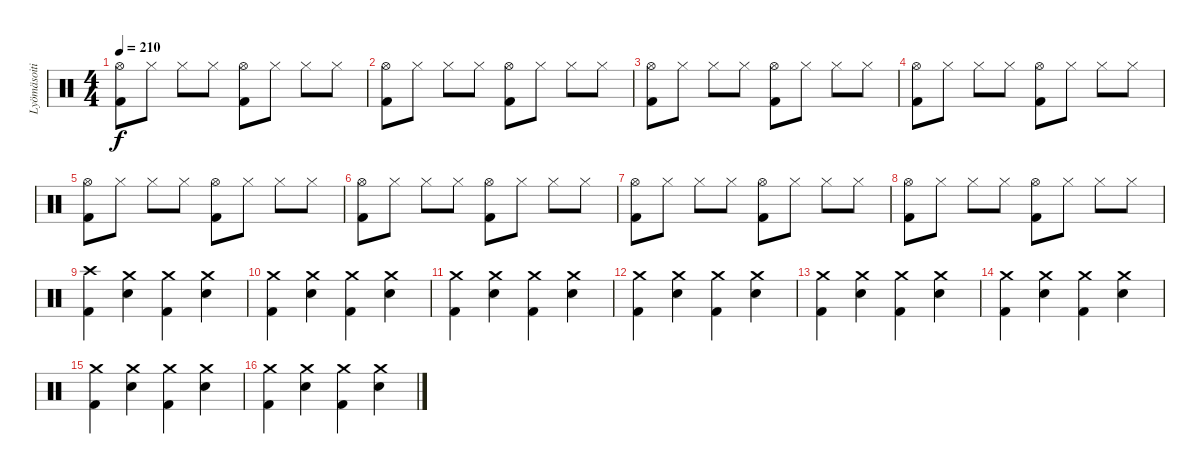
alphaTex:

\track ("Lyömäsoitin" "Lyömäsoiti") {instrument percussion}
\staff {score}
\articulation defaults
\ts (4 4)
\tempo 210
\clef neutral
\ks c
("Hi-Hat (open)" "Kick (hit) 2").8{dy f} "Hi-Hat (closed)".8 "Hi-Hat (closed)".8 "Hi-Hat (closed)".8 ("Hi-Hat (open)" "Kick (hit) 2").8 "Hi-Hat (closed)".8 "Hi-Hat (closed)".8 "Hi-Hat (closed)".8 |
("Hi-Hat (open)" "Kick (hit) 2").8 "Hi-Hat (closed)".8 "Hi-Hat (closed)".8 "Hi-Hat (closed)".8 ("Hi-Hat (open)" "Kick (hit) 2").8 "Hi-Hat (closed)".8 "Hi-Hat (closed)".8 "Hi-Hat (closed)".8 |
("Hi-Hat (open)" "Kick (hit) 2").8 "Hi-Hat (closed)".8 "Hi-Hat (closed)".8 "Hi-Hat (closed)".8 ("Hi-Hat (open)" "Kick (hit) 2").8 "Hi-Hat (closed)".8 "Hi-Hat (closed)".8 "Hi-Hat (closed)".8 |
("Hi-Hat (open)" "Kick (hit) 2").8 "Hi-Hat (closed)".8 "Hi-Hat (closed)".8 "Hi-Hat (closed)".8 ("Hi-Hat (open)" "Kick (hit) 2").8 "Hi-Hat (closed)".8 "Hi-Hat (closed)".8 "Hi-Hat (closed)".8 |
("Hi-Hat (open)" "Kick (hit) 2").8 "Hi-Hat (closed)".8 "Hi-Hat (closed)".8 "Hi-Hat (closed)".8 ("Hi-Hat (open)" "Kick (hit) 2").8 "Hi-Hat (closed)".8 "Hi-Hat (closed)".8 "Hi-Hat (closed)".8 |
("Hi-Hat (open)" "Kick (hit) 2").8 "Hi-Hat (closed)".8 "Hi-Hat (closed)".8 "Hi-Hat (closed)".8 ("Hi-Hat (open)" "Kick (hit) 2").8 "Hi-Hat (closed)".8 "Hi-Hat (closed)".8 "Hi-Hat (closed)".8 |
("Hi-Hat (open)" "Kick (hit) 2").8 "Hi-Hat (closed)".8 "Hi-Hat (closed)".8 "Hi-Hat (closed)".8 ("Hi-Hat (open)" "Kick (hit) 2").8 "Hi-Hat (closed)".8 "Hi-Hat (closed)".8 "Hi-Hat (closed)".8 |
("Hi-Hat (open)" "Kick (hit) 2").8 "Hi-Hat (closed)".8 "Hi-Hat (closed)".8 "Hi-Hat (closed)".8 ("Hi-Hat (open)" "Kick (hit) 2").8 "Hi-Hat (closed)".8 "Hi-Hat (closed)".8 "Hi-Hat (closed)".8 |
("Crash high (hit)" "Kick (hit) 2").4 ("Crash medium (hit)" "Electric Snare (hit)").4 ("Crash medium (hit)" "Kick (hit) 2").4 ("Crash medium (hit)" "Electric Snare (hit)").4 |
("Crash medium (hit)" "Kick (hit) 2").4 ("Crash medium (hit)" "Electric Snare (hit)").4 ("Crash medium (hit)" "Kick (hit) 2").4 ("Crash medium (hit)" "Electric Snare (hit)").4 |
("Crash medium (hit)" "Kick (hit) 2").4 ("Crash medium (hit)" "Electric Snare (hit)").4 ("Crash medium (hit)" "Kick (hit) 2").4 ("Crash medium (hit)" "Electric Snare (hit)").4 |
("Crash medium (hit)" "Kick (hit) 2").4 ("Crash medium (hit)" "Electric Snare (hit)").4 ("Crash medium (hit)" "Kick (hit) 2").4 ("Crash medium (hit)" "Electric Snare (hit)").4 |
("Crash medium (hit)" "Kick (hit) 2").4 ("Crash medium (hit)" "Electric Snare (hit)").4 ("Crash medium (hit)" "Kick (hit) 2").4 ("Crash medium (hit)" "Electric Snare (hit)").4 |
("Crash medium (hit)" "Kick (hit) 2").4 ("Crash medium (hit)" "Electric Snare (hit)").4 ("Crash medium (hit)" "Kick (hit) 2").4 ("Crash medium (hit)" "Electric Snare (hit)").4 |
("Crash medium (hit)" "Kick (hit) 2").4 ("Crash medium (hit)" "Electric Snare (hit)").4 ("Crash medium (hit)" "Kick (hit) 2").4 ("Crash medium (hit)" "Electric Snare (hit)").4 |
("Crash medium (hit)" "Kick (hit) 2").4 ("Crash medium (hit)" "Electric Snare (hit)").4 ("Crash medium (hit)" "Kick (hit) 2").4 ("Crash medium (hit)" "Electric Snare (hit)").4
